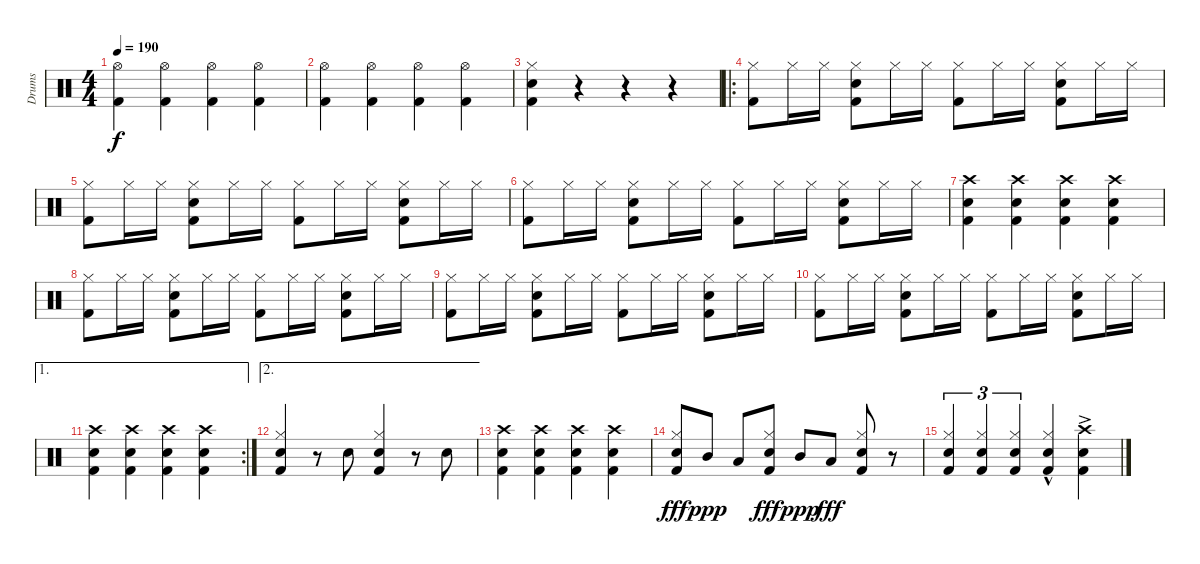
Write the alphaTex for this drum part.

\track ("Drums" "Drums") {instrument percussion}
\staff {score}
\articulation defaults
\ts (4 4)
\tempo 190
\clef neutral
\ks c
("Kick (hit) 2" "Hi-Hat (open)").4{dy f} ("Kick (hit) 2" "Hi-Hat (open)").4 ("Kick (hit) 2" "Hi-Hat (open)").4 ("Kick (hit) 2" "Hi-Hat (open)").4 |
("Kick (hit) 2" "Hi-Hat (open)").4 ("Kick (hit) 2" "Hi-Hat (open)").4 ("Kick (hit) 2" "Hi-Hat (open)").4 ("Kick (hit) 2" "Hi-Hat (open)").4 |
("Kick (hit) 2" "Electric Snare (hit)" "Hi-Hat (closed)").4 r.4 r.4 r.4 |
\ro
("Kick (hit) 2" "Hi-Hat (closed)").8 "Hi-Hat (closed)".16 "Hi-Hat (closed)".16 ("Kick (hit) 2" "Snare (hit) 2" "Hi-Hat (closed)").8 "Hi-Hat (closed)".16 "Hi-Hat (closed)".16 ("Kick (hit) 2" "Hi-Hat (closed)").8 "Hi-Hat (closed)".16 "Hi-Hat (closed)".16 ("Kick (hit) 2" "Snare (hit) 2" "Hi-Hat (closed)").8 "Hi-Hat (closed)".16 "Hi-Hat (closed)".16 |
("Kick (hit) 2" "Hi-Hat (closed)").8 "Hi-Hat (closed)".16 "Hi-Hat (closed)".16 ("Kick (hit) 2" "Snare (hit) 2" "Hi-Hat (closed)").8 "Hi-Hat (closed)".16 "Hi-Hat (closed)".16 ("Kick (hit) 2" "Hi-Hat (closed)").8 "Hi-Hat (closed)".16 "Hi-Hat (closed)".16 ("Kick (hit) 2" "Snare (hit) 2" "Hi-Hat (closed)").8 "Hi-Hat (closed)".16 "Hi-Hat (closed)".16 |
("Kick (hit) 2" "Hi-Hat (closed)").8 "Hi-Hat (closed)".16 "Hi-Hat (closed)".16 ("Kick (hit) 2" "Snare (hit) 2" "Hi-Hat (closed)").8 "Hi-Hat (closed)".16 "Hi-Hat (closed)".16 ("Kick (hit) 2" "Hi-Hat (closed)").8 "Hi-Hat (closed)".16 "Hi-Hat (closed)".16 ("Kick (hit) 2" "Snare (hit) 2" "Hi-Hat (closed)").8 "Hi-Hat (closed)".16 "Hi-Hat (closed)".16 |
("Kick (hit) 2" "Snare (hit) 2" "Crash high (hit)").4 ("Kick (hit) 2" "Snare (hit) 2" "Crash high (hit)").4 ("Kick (hit) 2" "Snare (hit) 2" "Crash high (hit)").4 ("Kick (hit) 2" "Snare (hit) 2" "Crash high (hit)").4 |
("Kick (hit) 2" "Hi-Hat (closed)").8 "Hi-Hat (closed)".16 "Hi-Hat (closed)".16 ("Kick (hit) 2" "Snare (hit) 2" "Hi-Hat (closed)").8 "Hi-Hat (closed)".16 "Hi-Hat (closed)".16 ("Kick (hit) 2" "Hi-Hat (closed)").8 "Hi-Hat (closed)".16 "Hi-Hat (closed)".16 ("Kick (hit) 2" "Snare (hit) 2" "Hi-Hat (closed)").8 "Hi-Hat (closed)".16 "Hi-Hat (closed)".16 |
("Kick (hit) 2" "Hi-Hat (closed)").8 "Hi-Hat (closed)".16 "Hi-Hat (closed)".16 ("Kick (hit) 2" "Snare (hit) 2" "Hi-Hat (closed)").8 "Hi-Hat (closed)".16 "Hi-Hat (closed)".16 ("Kick (hit) 2" "Hi-Hat (closed)").8 "Hi-Hat (closed)".16 "Hi-Hat (closed)".16 ("Kick (hit) 2" "Snare (hit) 2" "Hi-Hat (closed)").8 "Hi-Hat (closed)".16 "Hi-Hat (closed)".16 |
("Kick (hit) 2" "Hi-Hat (closed)").8 "Hi-Hat (closed)".16 "Hi-Hat (closed)".16 ("Kick (hit) 2" "Snare (hit) 2" "Hi-Hat (closed)").8 "Hi-Hat (closed)".16 "Hi-Hat (closed)".16 ("Kick (hit) 2" "Hi-Hat (closed)").8 "Hi-Hat (closed)".16 "Hi-Hat (closed)".16 ("Kick (hit) 2" "Snare (hit) 2" "Hi-Hat (closed)").8 "Hi-Hat (closed)".16 "Hi-Hat (closed)".16 |
\ae 1
\rc 2
("Kick (hit) 2" "Snare (hit) 2" "Crash high (hit)").4 ("Kick (hit) 2" "Snare (hit) 2" "Crash high (hit)").4 ("Kick (hit) 2" "Snare (hit) 2" "Crash high (hit)").4 ("Kick (hit) 2" "Snare (hit) 2" "Crash high (hit)").4 |
\ae 2
("Snare (hit) 2" "Kick (hit) 2" "Hi-Hat (closed)").4 r.8 "Snare (hit) 2".8 ("Snare (hit) 2" "Kick (hit) 2" "Hi-Hat (closed)").4 r.8 "Snare (hit) 2".8 |
("Snare (hit) 2" "Kick (hit) 2" "Crash high (hit)").4 ("Snare (hit) 2" "Kick (hit) 2" "Crash high (hit)").4 ("Snare (hit) 2" "Kick (hit) 2" "Crash high (hit)").4 ("Snare (hit) 2" "Kick (hit) 2" "Crash high (hit)").4 |
("Kick (hit) 2" "Snare (hit) 2" "Hi-Hat (closed)").8{dy fff} "Mid Tom (hit)".8{dy ppp} "Low Tom (hit)".8 ("Kick (hit) 2" "Snare (hit) 2" "Hi-Hat (closed)").8{dy fff} "Mid Tom (hit)".8{dy ppp} "Low Tom (hit)".8{dy fff} ("Kick (hit) 2" "Snare (hit) 2" "Hi-Hat (closed)").8 r.8 |
("Kick (hit) 2" "Snare (hit) 2" "Hi-Hat (closed)").4{tu (3 2)} ("Kick (hit) 2" "Snare (hit) 2" "Hi-Hat (closed)").4{tu (3 2)} ("Kick (hit) 2" "Snare (hit) 2" "Hi-Hat (closed)").4{tu (3 2)} ("Kick (hit) 2"{hac} "Snare (hit) 2"{hac} "Hi-Hat (closed)"{hac}).4 ("Snare (hit) 2"{ac} "Kick (hit) 2"{ac} "Crash high (hit)"{ac}).4
